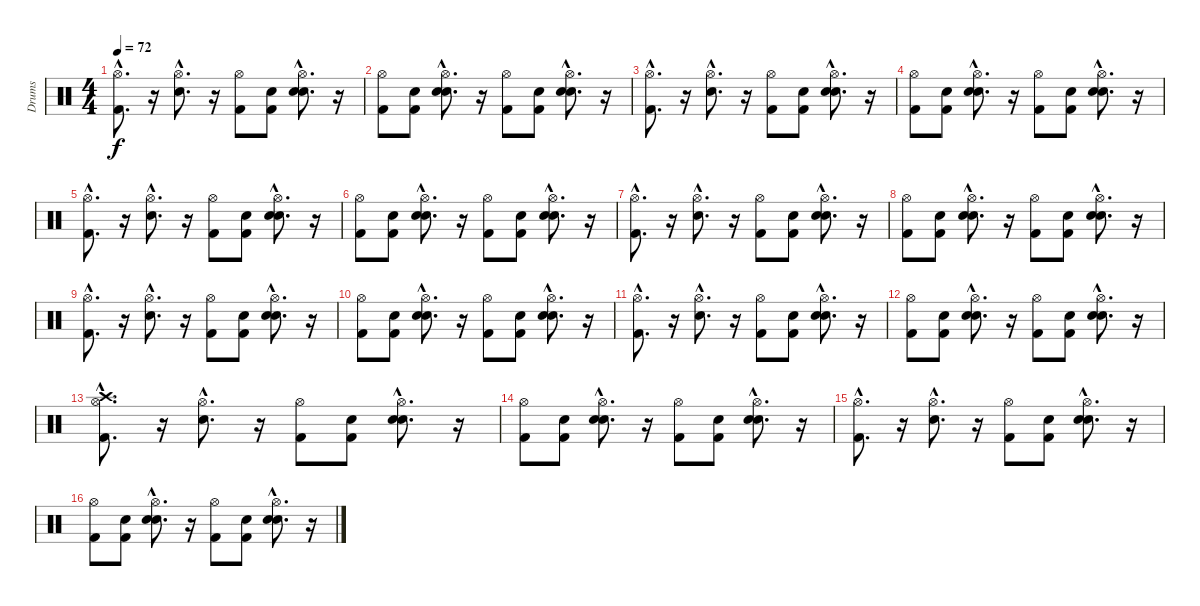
\track ("Drums" "Drums") {instrument percussion}
\staff {score}
\articulation defaults
\ts (4 4)
\tempo 72
\clef neutral
\ks c
("Kick (hit) 2"{hac} "Hi-Hat (open)"{hac}).8{d dy f} r.16 ("Snare (hit) 2"{hac} "Hi-Hat (open)"{hac}).8{d} r.16 ("Kick (hit) 2" "Hi-Hat (open)").8 ("Snare (hit)" "Kick (hit) 2").8 ("Snare (hit)"{hac} "Snare (hit) 2"{hac} "Hi-Hat (open)"{hac}).8{d} r.16 |
("Kick (hit) 2" "Hi-Hat (open)").8 ("Snare (hit)" "Kick (hit) 2").8 ("Snare (hit)"{hac} "Snare (hit) 2"{hac} "Hi-Hat (open)"{hac}).8{d} r.16 ("Kick (hit) 2" "Hi-Hat (open)").8 ("Snare (hit)" "Kick (hit) 2").8 ("Snare (hit)"{hac} "Snare (hit) 2"{hac} "Hi-Hat (open)"{hac}).8{d} r.16 |
("Kick (hit) 2"{hac} "Hi-Hat (open)"{hac}).8{d} r.16 ("Snare (hit) 2"{hac} "Hi-Hat (open)"{hac}).8{d} r.16 ("Kick (hit) 2" "Hi-Hat (open)").8 ("Snare (hit)" "Kick (hit) 2").8 ("Snare (hit)"{hac} "Snare (hit) 2"{hac} "Hi-Hat (open)"{hac}).8{d} r.16 |
("Kick (hit) 2" "Hi-Hat (open)").8 ("Snare (hit)" "Kick (hit) 2").8 ("Snare (hit)"{hac} "Snare (hit) 2"{hac} "Hi-Hat (open)"{hac}).8{d} r.16 ("Kick (hit) 2" "Hi-Hat (open)").8 ("Snare (hit)" "Kick (hit) 2").8 ("Snare (hit)"{hac} "Snare (hit) 2"{hac} "Hi-Hat (open)"{hac}).8{d} r.16 |
("Kick (hit) 2"{hac} "Hi-Hat (open)"{hac}).8{d} r.16 ("Snare (hit) 2"{hac} "Hi-Hat (open)"{hac}).8{d} r.16 ("Kick (hit) 2" "Hi-Hat (open)").8 ("Snare (hit)" "Kick (hit) 2").8 ("Snare (hit)"{hac} "Snare (hit) 2"{hac} "Hi-Hat (open)"{hac}).8{d} r.16 |
("Kick (hit) 2" "Hi-Hat (open)").8 ("Snare (hit)" "Kick (hit) 2").8 ("Snare (hit)"{hac} "Snare (hit) 2"{hac} "Hi-Hat (open)"{hac}).8{d} r.16 ("Kick (hit) 2" "Hi-Hat (open)").8 ("Snare (hit)" "Kick (hit) 2").8 ("Snare (hit)"{hac} "Snare (hit) 2"{hac} "Hi-Hat (open)"{hac}).8{d} r.16 |
("Kick (hit) 2"{hac} "Hi-Hat (open)"{hac}).8{d} r.16 ("Snare (hit) 2"{hac} "Hi-Hat (open)"{hac}).8{d} r.16 ("Kick (hit) 2" "Hi-Hat (open)").8 ("Snare (hit)" "Kick (hit) 2").8 ("Snare (hit)"{hac} "Snare (hit) 2"{hac} "Hi-Hat (open)"{hac}).8{d} r.16 |
("Kick (hit) 2" "Hi-Hat (open)").8 ("Snare (hit)" "Kick (hit) 2").8 ("Snare (hit)"{hac} "Snare (hit) 2"{hac} "Hi-Hat (open)"{hac}).8{d} r.16 ("Kick (hit) 2" "Hi-Hat (open)").8 ("Snare (hit)" "Kick (hit) 2").8 ("Snare (hit)"{hac} "Snare (hit) 2"{hac} "Hi-Hat (open)"{hac}).8{d} r.16 |
("Kick (hit) 2"{hac} "Hi-Hat (open)"{hac}).8{d} r.16 ("Snare (hit) 2"{hac} "Hi-Hat (open)"{hac}).8{d} r.16 ("Kick (hit) 2" "Hi-Hat (open)").8 ("Snare (hit)" "Kick (hit) 2").8 ("Snare (hit)"{hac} "Snare (hit) 2"{hac} "Hi-Hat (open)"{hac}).8{d} r.16 |
("Kick (hit) 2" "Hi-Hat (open)").8 ("Snare (hit)" "Kick (hit) 2").8 ("Snare (hit)"{hac} "Snare (hit) 2"{hac} "Hi-Hat (open)"{hac}).8{d} r.16 ("Kick (hit) 2" "Hi-Hat (open)").8 ("Snare (hit)" "Kick (hit) 2").8 ("Snare (hit)"{hac} "Snare (hit) 2"{hac} "Hi-Hat (open)"{hac}).8{d} r.16 |
("Kick (hit) 2"{hac} "Hi-Hat (open)"{hac}).8{d} r.16 ("Snare (hit) 2"{hac} "Hi-Hat (open)"{hac}).8{d} r.16 ("Kick (hit) 2" "Hi-Hat (open)").8 ("Snare (hit)" "Kick (hit) 2").8 ("Snare (hit)"{hac} "Snare (hit) 2"{hac} "Hi-Hat (open)"{hac}).8{d} r.16 |
("Kick (hit) 2" "Hi-Hat (open)").8 ("Snare (hit)" "Kick (hit) 2").8 ("Snare (hit)"{hac} "Snare (hit) 2"{hac} "Hi-Hat (open)"{hac}).8{d} r.16 ("Kick (hit) 2" "Hi-Hat (open)").8 ("Snare (hit)" "Kick (hit) 2").8 ("Snare (hit)"{hac} "Snare (hit) 2"{hac} "Hi-Hat (open)"{hac}).8{d} r.16 |
("Kick (hit) 2"{hac} "Hi-Hat (open)"{hac} "Crash high (hit)"{hac}).8{d} r.16 ("Snare (hit) 2"{hac} "Hi-Hat (open)"{hac}).8{d} r.16 ("Kick (hit) 2" "Hi-Hat (open)").8 ("Snare (hit)" "Kick (hit) 2").8 ("Snare (hit)"{hac} "Snare (hit) 2"{hac} "Hi-Hat (open)"{hac}).8{d} r.16 |
("Kick (hit) 2" "Hi-Hat (open)").8 ("Snare (hit)" "Kick (hit) 2").8 ("Snare (hit)"{hac} "Snare (hit) 2"{hac} "Hi-Hat (open)"{hac}).8{d} r.16 ("Kick (hit) 2" "Hi-Hat (open)").8 ("Snare (hit)" "Kick (hit) 2").8 ("Snare (hit)"{hac} "Snare (hit) 2"{hac} "Hi-Hat (open)"{hac}).8{d} r.16 |
("Kick (hit) 2"{hac} "Hi-Hat (open)"{hac}).8{d} r.16 ("Snare (hit) 2"{hac} "Hi-Hat (open)"{hac}).8{d} r.16 ("Kick (hit) 2" "Hi-Hat (open)").8 ("Snare (hit)" "Kick (hit) 2").8 ("Snare (hit)"{hac} "Snare (hit) 2"{hac} "Hi-Hat (open)"{hac}).8{d} r.16 |
("Kick (hit) 2" "Hi-Hat (open)").8 ("Snare (hit)" "Kick (hit) 2").8 ("Snare (hit)"{hac} "Snare (hit) 2"{hac} "Hi-Hat (open)"{hac}).8{d} r.16 ("Kick (hit) 2" "Hi-Hat (open)").8 ("Snare (hit)" "Kick (hit) 2").8 ("Snare (hit)"{hac} "Snare (hit) 2"{hac} "Hi-Hat (open)"{hac}).8{d} r.16
